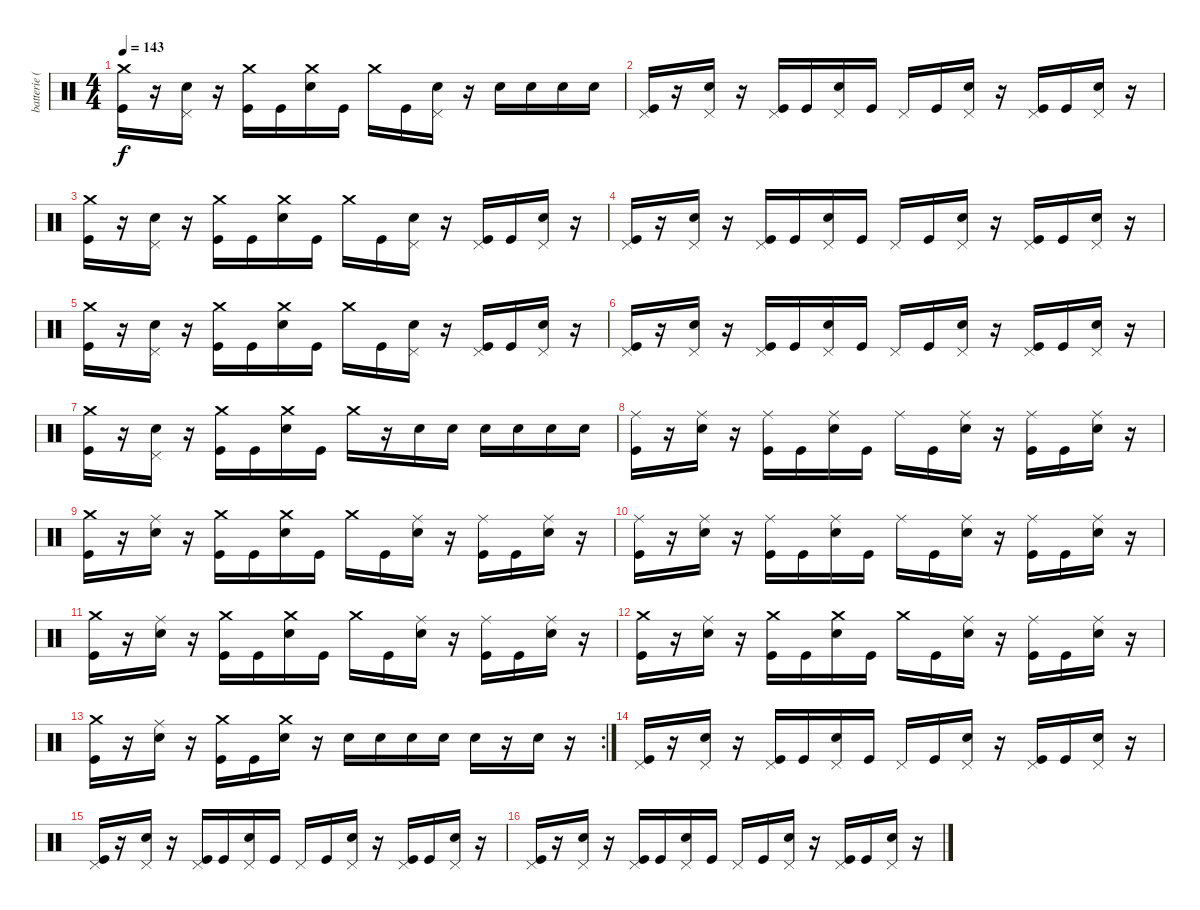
\track ("batterie ( Vinnie ) " "batterie (") {instrument percussion}
\staff {score}
\articulation defaults
\ts (4 4)
\tempo 143
\clef neutral
\ks c
("Crash medium (hit)" "Kick (hit)").16{dy f} r.16 ("Pedal Hi-Hat (hit)" "Snare (hit) 2").16 r.16 ("Crash medium (hit)" "Kick (hit)").16 "Kick (hit)".16 ("Crash medium (hit)" "Snare (hit) 2").16 "Kick (hit)".16 "Crash medium (hit)".16 "Kick (hit)".16 ("Pedal Hi-Hat (hit)" "Snare (hit) 2").16 r.16 "Snare (hit) 2".16 "Snare (hit) 2".16 "Snare (hit) 2".16 "Snare (hit) 2".16 |
("Pedal Hi-Hat (hit)" "Kick (hit)").16 r.16 ("Pedal Hi-Hat (hit)" "Snare (hit) 2").16 r.16 ("Pedal Hi-Hat (hit)" "Kick (hit)").16 "Kick (hit)".16 ("Pedal Hi-Hat (hit)" "Snare (hit) 2").16 "Kick (hit)".16 "Pedal Hi-Hat (hit)".16 "Kick (hit)".16 ("Pedal Hi-Hat (hit)" "Snare (hit) 2").16 r.16 ("Pedal Hi-Hat (hit)" "Kick (hit)").16 "Kick (hit)".16 ("Pedal Hi-Hat (hit)" "Snare (hit) 2").16 r.16 |
("Crash medium (hit)" "Kick (hit)").16 r.16 ("Pedal Hi-Hat (hit)" "Snare (hit) 2").16 r.16 ("Crash medium (hit)" "Kick (hit)").16 "Kick (hit)".16 ("Crash medium (hit)" "Snare (hit) 2").16 "Kick (hit)".16 "Crash medium (hit)".16 "Kick (hit)".16 ("Pedal Hi-Hat (hit)" "Snare (hit) 2").16 r.16 ("Pedal Hi-Hat (hit)" "Kick (hit)").16 "Kick (hit)".16 ("Pedal Hi-Hat (hit)" "Snare (hit) 2").16 r.16 |
("Pedal Hi-Hat (hit)" "Kick (hit)").16 r.16 ("Pedal Hi-Hat (hit)" "Snare (hit) 2").16 r.16 ("Pedal Hi-Hat (hit)" "Kick (hit)").16 "Kick (hit)".16 ("Pedal Hi-Hat (hit)" "Snare (hit) 2").16 "Kick (hit)".16 "Pedal Hi-Hat (hit)".16 "Kick (hit)".16 ("Pedal Hi-Hat (hit)" "Snare (hit) 2").16 r.16 ("Pedal Hi-Hat (hit)" "Kick (hit)").16 "Kick (hit)".16 ("Pedal Hi-Hat (hit)" "Snare (hit) 2").16 r.16 |
("Crash medium (hit)" "Kick (hit)").16 r.16 ("Pedal Hi-Hat (hit)" "Snare (hit) 2").16 r.16 ("Crash medium (hit)" "Kick (hit)").16 "Kick (hit)".16 ("Crash medium (hit)" "Snare (hit) 2").16 "Kick (hit)".16 "Crash medium (hit)".16 "Kick (hit)".16 ("Pedal Hi-Hat (hit)" "Snare (hit) 2").16 r.16 ("Pedal Hi-Hat (hit)" "Kick (hit)").16 "Kick (hit)".16 ("Pedal Hi-Hat (hit)" "Snare (hit) 2").16 r.16 |
("Pedal Hi-Hat (hit)" "Kick (hit)").16 r.16 ("Pedal Hi-Hat (hit)" "Snare (hit) 2").16 r.16 ("Pedal Hi-Hat (hit)" "Kick (hit)").16 "Kick (hit)".16 ("Pedal Hi-Hat (hit)" "Snare (hit) 2").16 "Kick (hit)".16 "Pedal Hi-Hat (hit)".16 "Kick (hit)".16 ("Pedal Hi-Hat (hit)" "Snare (hit) 2").16 r.16 ("Pedal Hi-Hat (hit)" "Kick (hit)").16 "Kick (hit)".16 ("Pedal Hi-Hat (hit)" "Snare (hit) 2").16 r.16 |
("Crash medium (hit)" "Kick (hit)").16 r.16 ("Pedal Hi-Hat (hit)" "Snare (hit) 2").16 r.16 ("Crash medium (hit)" "Kick (hit)").16 "Kick (hit)".16 ("Crash medium (hit)" "Snare (hit) 2").16 "Kick (hit)".16 "Crash medium (hit)".16 r.16 "Snare (hit) 2".16 "Snare (hit) 2".16 "Snare (hit) 2".16 "Snare (hit) 2".16 "Snare (hit) 2".16 "Snare (hit) 2".16 |
("Ride (middle)" "Kick (hit)").16 r.16 ("Ride (middle)" "Snare (hit) 2").16 r.16 ("Ride (middle)" "Kick (hit)").16 "Kick (hit)".16 ("Ride (middle)" "Snare (hit) 2").16 "Kick (hit)".16 "Ride (middle)".16 "Kick (hit)".16 ("Ride (middle)" "Snare (hit) 2").16 r.16 ("Ride (middle)" "Kick (hit)").16 "Kick (hit)".16 ("Ride (middle)" "Snare (hit) 2").16 r.16 |
("Crash medium (hit)" "Kick (hit)").16 r.16 ("Ride (middle)" "Snare (hit) 2").16 r.16 ("Crash medium (hit)" "Kick (hit)").16 "Kick (hit)".16 ("Crash medium (hit)" "Snare (hit) 2").16 "Kick (hit)".16 "Crash medium (hit)".16 "Kick (hit)".16 ("Ride (middle)" "Snare (hit) 2").16 r.16 ("Ride (middle)" "Kick (hit)").16 "Kick (hit)".16 ("Ride (middle)" "Snare (hit) 2").16 r.16 |
("Ride (middle)" "Kick (hit)").16 r.16 ("Ride (middle)" "Snare (hit) 2").16 r.16 ("Ride (middle)" "Kick (hit)").16 "Kick (hit)".16 ("Ride (middle)" "Snare (hit) 2").16 "Kick (hit)".16 "Ride (middle)".16 "Kick (hit)".16 ("Ride (middle)" "Snare (hit) 2").16 r.16 ("Ride (middle)" "Kick (hit)").16 "Kick (hit)".16 ("Ride (middle)" "Snare (hit) 2").16 r.16 |
("Crash medium (hit)" "Kick (hit)").16 r.16 ("Ride (middle)" "Snare (hit) 2").16 r.16 ("Crash medium (hit)" "Kick (hit)").16 "Kick (hit)".16 ("Crash medium (hit)" "Snare (hit) 2").16 "Kick (hit)".16 "Crash medium (hit)".16 "Kick (hit)".16 ("Ride (middle)" "Snare (hit) 2").16 r.16 ("Ride (middle)" "Kick (hit)").16 "Kick (hit)".16 ("Ride (middle)" "Snare (hit) 2").16 r.16 |
("Crash medium (hit)" "Kick (hit)").16 r.16 ("Ride (middle)" "Snare (hit) 2").16 r.16 ("Crash medium (hit)" "Kick (hit)").16 "Kick (hit)".16 ("Crash medium (hit)" "Snare (hit) 2").16 "Kick (hit)".16 "Crash medium (hit)".16 "Kick (hit)".16 ("Ride (middle)" "Snare (hit) 2").16 r.16 ("Ride (middle)" "Kick (hit)").16 "Kick (hit)".16 ("Ride (middle)" "Snare (hit) 2").16 r.16 |
\rc 2
("Crash medium (hit)" "Kick (hit)").16 r.16 ("Ride (middle)" "Snare (hit) 2").16 r.16 ("Crash medium (hit)" "Kick (hit)").16 "Kick (hit)".16 ("Crash medium (hit)" "Snare (hit) 2").16 r.16 "Snare (hit) 2".16 "Snare (hit) 2".16 "Snare (hit) 2".16 "Snare (hit) 2".16 "Snare (hit) 2".16 r.16 "Snare (hit) 2".16 r.16 |
("Pedal Hi-Hat (hit)" "Kick (hit)").16 r.16 ("Pedal Hi-Hat (hit)" "Snare (hit) 2").16 r.16 ("Pedal Hi-Hat (hit)" "Kick (hit)").16 "Kick (hit)".16 ("Pedal Hi-Hat (hit)" "Snare (hit) 2").16 "Kick (hit)".16 "Pedal Hi-Hat (hit)".16 "Kick (hit)".16 ("Pedal Hi-Hat (hit)" "Snare (hit) 2").16 r.16 ("Pedal Hi-Hat (hit)" "Kick (hit)").16 "Kick (hit)".16 ("Pedal Hi-Hat (hit)" "Snare (hit) 2").16 r.16 |
("Pedal Hi-Hat (hit)" "Kick (hit)").16 r.16 ("Pedal Hi-Hat (hit)" "Snare (hit) 2").16 r.16 ("Pedal Hi-Hat (hit)" "Kick (hit)").16 "Kick (hit)".16 ("Pedal Hi-Hat (hit)" "Snare (hit) 2").16 "Kick (hit)".16 "Pedal Hi-Hat (hit)".16 "Kick (hit)".16 ("Pedal Hi-Hat (hit)" "Snare (hit) 2").16 r.16 ("Pedal Hi-Hat (hit)" "Kick (hit)").16 "Kick (hit)".16 ("Pedal Hi-Hat (hit)" "Snare (hit) 2").16 r.16 |
("Pedal Hi-Hat (hit)" "Kick (hit)").16 r.16 ("Pedal Hi-Hat (hit)" "Snare (hit) 2").16 r.16 ("Pedal Hi-Hat (hit)" "Kick (hit)").16 "Kick (hit)".16 ("Pedal Hi-Hat (hit)" "Snare (hit) 2").16 "Kick (hit)".16 "Pedal Hi-Hat (hit)".16 "Kick (hit)".16 ("Pedal Hi-Hat (hit)" "Snare (hit) 2").16 r.16 ("Pedal Hi-Hat (hit)" "Kick (hit)").16 "Kick (hit)".16 ("Pedal Hi-Hat (hit)" "Snare (hit) 2").16 r.16
